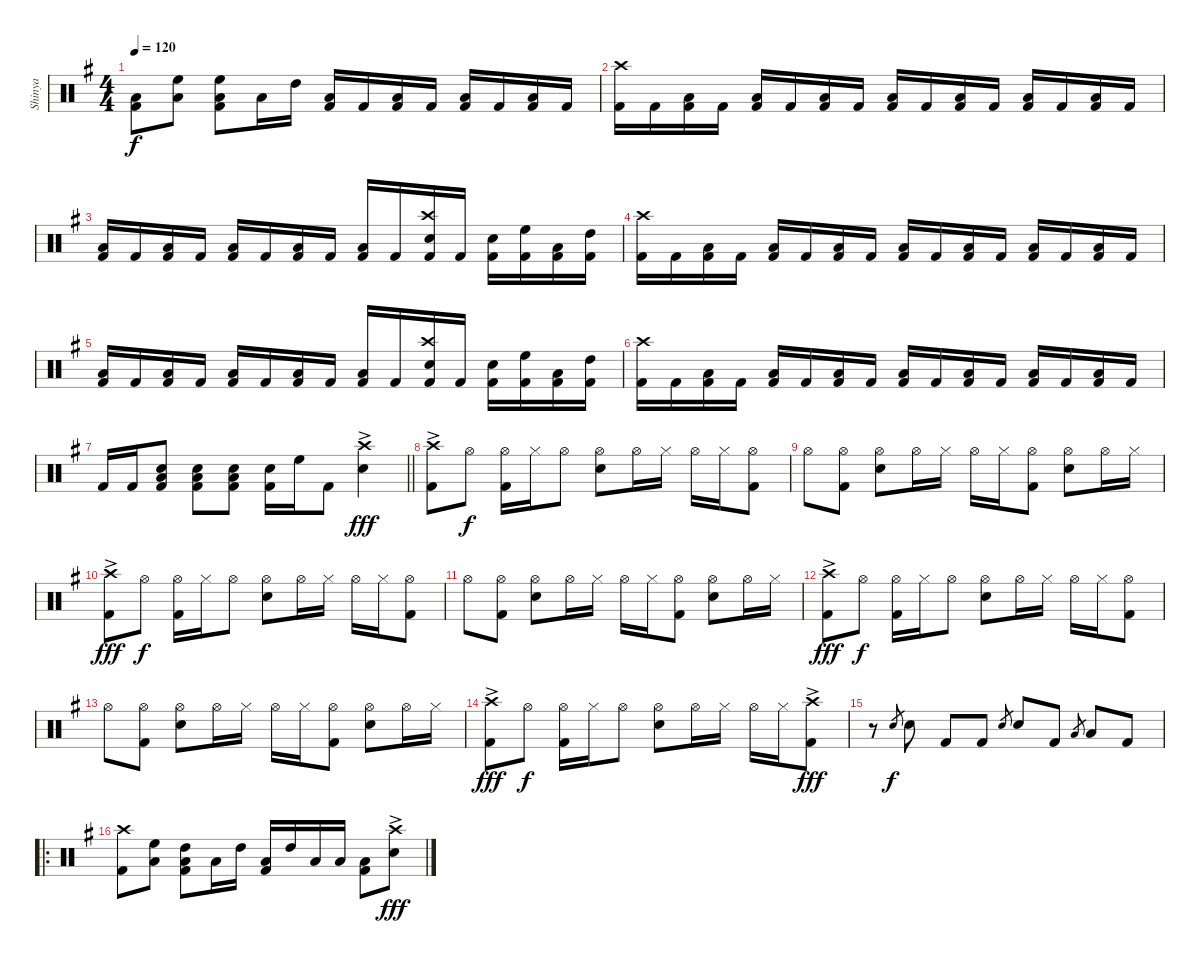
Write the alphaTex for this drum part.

\track ("Shinya" "Shinya") {instrument percussion}
\staff {score}
\articulation defaults
\ts (4 4)
\tempo 120
\clef neutral
\ks g
("Low Floor Tom (hit)" "Kick (hit) 2").8{dy f} ("High Floor Tom (hit)" "Low Floor Tom (hit)").8 ("High Floor Tom (hit)" "Low Floor Tom (hit)" "Kick (hit) 2").8 "Low Floor Tom (hit)".16 "High Tom (hit)".16 ("Low Floor Tom (hit)" "Kick (hit) 2").16 "Kick (hit) 2".16 ("Low Floor Tom (hit)" "Kick (hit) 2").16 "Kick (hit) 2".16 ("Low Floor Tom (hit)" "Kick (hit) 2").16 "Kick (hit) 2".16 ("Low Floor Tom (hit)" "Kick (hit) 2").16 "Kick (hit) 2".16 |
("Crash high (hit)" "Kick (hit) 2").16 "Kick (hit) 2".16 ("Low Floor Tom (hit)" "Kick (hit) 2").16 "Kick (hit) 2".16 ("Low Floor Tom (hit)" "Kick (hit) 2").16 "Kick (hit) 2".16 ("Low Floor Tom (hit)" "Kick (hit) 2").16 "Kick (hit) 2".16 ("Low Floor Tom (hit)" "Kick (hit) 2").16 "Kick (hit) 2".16 ("Low Floor Tom (hit)" "Kick (hit) 2").16 "Kick (hit) 2".16 ("Low Floor Tom (hit)" "Kick (hit) 2").16 "Kick (hit) 2".16 ("Low Floor Tom (hit)" "Kick (hit) 2").16 "Kick (hit) 2".16 |
("Low Floor Tom (hit)" "Kick (hit) 2").16 "Kick (hit) 2".16 ("Low Floor Tom (hit)" "Kick (hit) 2").16 "Kick (hit) 2".16 ("Low Floor Tom (hit)" "Kick (hit) 2").16 "Kick (hit) 2".16 ("Low Floor Tom (hit)" "Kick (hit) 2").16 "Kick (hit) 2".16 ("Low Floor Tom (hit)" "Kick (hit) 2").16 "Kick (hit) 2".16 ("Crash high (hit)" "Snare (hit) 2" "Kick (hit) 2").16 "Kick (hit) 2".16 ("Snare (hit) 2" "Kick (hit) 2").16 ("High Floor Tom (hit)" "Kick (hit) 2").16 ("Low Floor Tom (hit)" "Kick (hit) 2").16 ("High Tom (hit)" "Kick (hit) 2").16 |
("Crash high (hit)" "Kick (hit) 2").16 "Kick (hit) 2".16 ("Low Floor Tom (hit)" "Kick (hit) 2").16 "Kick (hit) 2".16 ("Low Floor Tom (hit)" "Kick (hit) 2").16 "Kick (hit) 2".16 ("Low Floor Tom (hit)" "Kick (hit) 2").16 "Kick (hit) 2".16 ("Low Floor Tom (hit)" "Kick (hit) 2").16 "Kick (hit) 2".16 ("Low Floor Tom (hit)" "Kick (hit) 2").16 "Kick (hit) 2".16 ("Low Floor Tom (hit)" "Kick (hit) 2").16 "Kick (hit) 2".16 ("Low Floor Tom (hit)" "Kick (hit) 2").16 "Kick (hit) 2".16 |
("Low Floor Tom (hit)" "Kick (hit) 2").16 "Kick (hit) 2".16 ("Low Floor Tom (hit)" "Kick (hit) 2").16 "Kick (hit) 2".16 ("Low Floor Tom (hit)" "Kick (hit) 2").16 "Kick (hit) 2".16 ("Low Floor Tom (hit)" "Kick (hit) 2").16 "Kick (hit) 2".16 ("Low Floor Tom (hit)" "Kick (hit) 2").16 "Kick (hit) 2".16 ("Crash high (hit)" "Snare (hit) 2" "Kick (hit) 2").16 "Kick (hit) 2".16 ("Snare (hit) 2" "Kick (hit) 2").16 ("High Floor Tom (hit)" "Kick (hit) 2").16 ("Low Floor Tom (hit)" "Kick (hit) 2").16 ("High Tom (hit)" "Kick (hit) 2").16 |
("Crash high (hit)" "Kick (hit) 2").16 "Kick (hit) 2".16 ("Low Floor Tom (hit)" "Kick (hit) 2").16 "Kick (hit) 2".16 ("Low Floor Tom (hit)" "Kick (hit) 2").16 "Kick (hit) 2".16 ("Low Floor Tom (hit)" "Kick (hit) 2").16 "Kick (hit) 2".16 ("Low Floor Tom (hit)" "Kick (hit) 2").16 "Kick (hit) 2".16 ("Low Floor Tom (hit)" "Kick (hit) 2").16 "Kick (hit) 2".16 ("Low Floor Tom (hit)" "Kick (hit) 2").16 "Kick (hit) 2".16 ("Low Floor Tom (hit)" "Kick (hit) 2").16 "Kick (hit) 2".16 |
\barLineRight lightlight "Kick (hit) 2".16 "Kick (hit) 2".16
("Snare (hit) 2" "Low Floor Tom (hit)" "Kick (hit) 2").8 ("Snare (hit) 2" "Low Floor Tom (hit)" "Kick (hit) 2").8 ("Snare (hit) 2" "Low Floor Tom (hit)" "Kick (hit) 2").8 ("Snare (hit) 2" "Kick (hit) 2").16 "High Floor Tom (hit)".16 "Kick (hit) 2".8 ("Crash high (hit)"{ac} "Snare (hit) 2").4{dy fff} |
("Crash high (hit)"{ac} "Kick (hit) 2").8 "Hi-Hat (open)".8{dy f} ("Hi-Hat (open)" "Kick (hit) 2").16 "Hi-Hat (closed)".16 "Hi-Hat (open)".8 ("Hi-Hat (open)" "Snare (hit) 2").8 "Hi-Hat (open)".16 "Hi-Hat (closed)".16 "Hi-Hat (open)".16 "Hi-Hat (closed)".16 ("Hi-Hat (open)" "Kick (hit) 2").8 |
"Hi-Hat (open)".8 ("Hi-Hat (open)" "Kick (hit) 2").8 ("Hi-Hat (open)" "Snare (hit) 2").8 "Hi-Hat (open)".16 "Hi-Hat (closed)".16 "Hi-Hat (open)".16 "Hi-Hat (closed)".16 ("Hi-Hat (open)" "Kick (hit) 2").8 ("Hi-Hat (open)" "Snare (hit) 2").8 "Hi-Hat (open)".16 "Hi-Hat (closed)".16 |
("Crash high (hit)"{ac} "Kick (hit) 2").8{dy fff} "Hi-Hat (open)".8{dy f} ("Hi-Hat (open)" "Kick (hit) 2").16 "Hi-Hat (closed)".16 "Hi-Hat (open)".8 ("Hi-Hat (open)" "Snare (hit) 2").8 "Hi-Hat (open)".16 "Hi-Hat (closed)".16 "Hi-Hat (open)".16 "Hi-Hat (closed)".16 ("Hi-Hat (open)" "Kick (hit) 2").8 |
"Hi-Hat (open)".8 ("Hi-Hat (open)" "Kick (hit) 2").8 ("Hi-Hat (open)" "Snare (hit) 2").8 "Hi-Hat (open)".16 "Hi-Hat (closed)".16 "Hi-Hat (open)".16 "Hi-Hat (closed)".16 ("Hi-Hat (open)" "Kick (hit) 2").8 ("Hi-Hat (open)" "Snare (hit) 2").8 "Hi-Hat (open)".16 "Hi-Hat (closed)".16 |
("Crash high (hit)"{ac} "Kick (hit) 2").8{dy fff} "Hi-Hat (open)".8{dy f} ("Hi-Hat (open)" "Kick (hit) 2").16 "Hi-Hat (closed)".16 "Hi-Hat (open)".8 ("Hi-Hat (open)" "Snare (hit) 2").8 "Hi-Hat (open)".16 "Hi-Hat (closed)".16 "Hi-Hat (open)".16 "Hi-Hat (closed)".16 ("Hi-Hat (open)" "Kick (hit) 2").8 |
"Hi-Hat (open)".8 ("Hi-Hat (open)" "Kick (hit) 2").8 ("Hi-Hat (open)" "Snare (hit) 2").8 "Hi-Hat (open)".16 "Hi-Hat (closed)".16 "Hi-Hat (open)".16 "Hi-Hat (closed)".16 ("Hi-Hat (open)" "Kick (hit) 2").8 ("Hi-Hat (open)" "Snare (hit) 2").8 "Hi-Hat (open)".16 "Hi-Hat (closed)".16 |
("Crash high (hit)"{ac} "Kick (hit) 2").8{dy fff} "Hi-Hat (open)".8{dy f} ("Hi-Hat (open)" "Kick (hit) 2").16 "Hi-Hat (closed)".16 "Hi-Hat (open)".8 ("Hi-Hat (open)" "Snare (hit) 2").8 "Hi-Hat (open)".16 "Hi-Hat (closed)".16 "Hi-Hat (open)".16 "Hi-Hat (closed)".16 ("Crash high (hit)"{ac} "Kick (hit) 2").8{dy fff} |
r.8 "Snare (hit) 2".8{gr dy f} "Snare (hit) 2".8 "Kick (hit) 2".8 "Kick (hit) 2".8 "Snare (hit) 2".8{gr} "Snare (hit) 2".8 "Kick (hit) 2".8 "Low Floor Tom (hit)".8{gr} "Low Floor Tom (hit)".8 "Kick (hit) 2".8 |
\ro
("Crash high (hit)" "Kick (hit) 2").8 ("High Floor Tom (hit)" "Low Floor Tom (hit)").8 ("High Tom (hit)" "Low Floor Tom (hit)" "Kick (hit) 2").8 "Low Floor Tom (hit)".16 "High Tom (hit)".16 ("Low Floor Tom (hit)" "Kick (hit) 2").16 "High Tom (hit)".16 "Low Floor Tom (hit)".16 "Low Floor Tom (hit)".16 ("Low Floor Tom (hit)" "Kick (hit) 2").8 ("Crash high (hit)"{ac} "Snare (hit) 2").8{dy fff}
